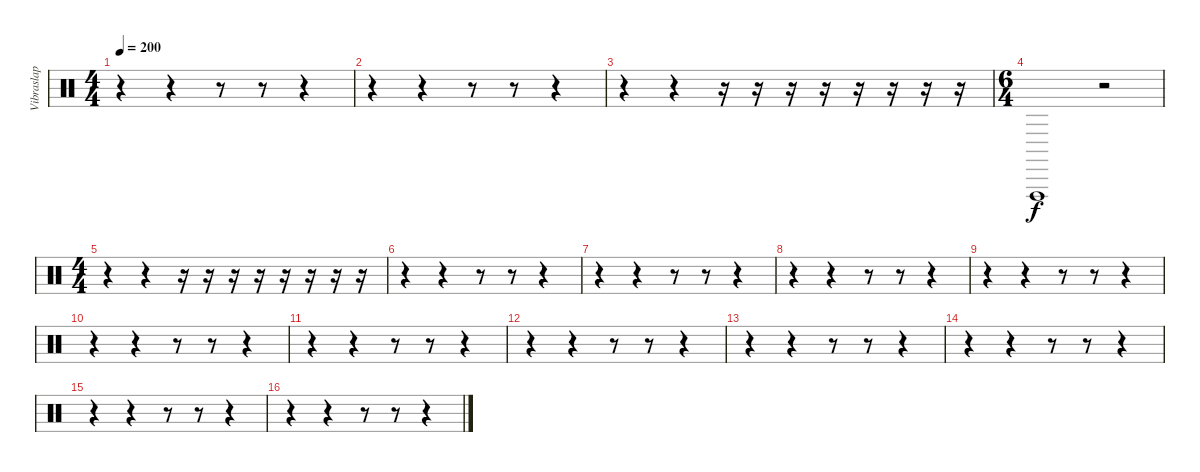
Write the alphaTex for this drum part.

\track ("Vibraslap" "Vibraslap") {instrument percussion}
\staff {score}
\articulation defaults
\ts (4 4)
\tempo 200
\clef neutral
\ks c
r.4{dy f} r.4 r.8 r.8 r.4 |
r.4 r.4 r.8 r.8 r.4 |
r.4 r.4 r.16 r.16 r.16 r.16 r.16 r.16 r.16 r.16 |
\ts (6 4)
"Vibraslap (hit)".1 r.2 |
\ts (4 4)
r.4 r.4 r.16 r.16 r.16 r.16 r.16 r.16 r.16 r.16 |
r.4 r.4 r.8 r.8 r.4 |
r.4 r.4 r.8 r.8 r.4 |
r.4 r.4 r.8 r.8 r.4 |
r.4 r.4 r.8 r.8 r.4 |
r.4 r.4 r.8 r.8 r.4 |
r.4 r.4 r.8 r.8 r.4 |
r.4 r.4 r.8 r.8 r.4 |
r.4 r.4 r.8 r.8 r.4 |
r.4 r.4 r.8 r.8 r.4 |
r.4 r.4 r.8 r.8 r.4 |
r.4 r.4 r.8 r.8 r.4
